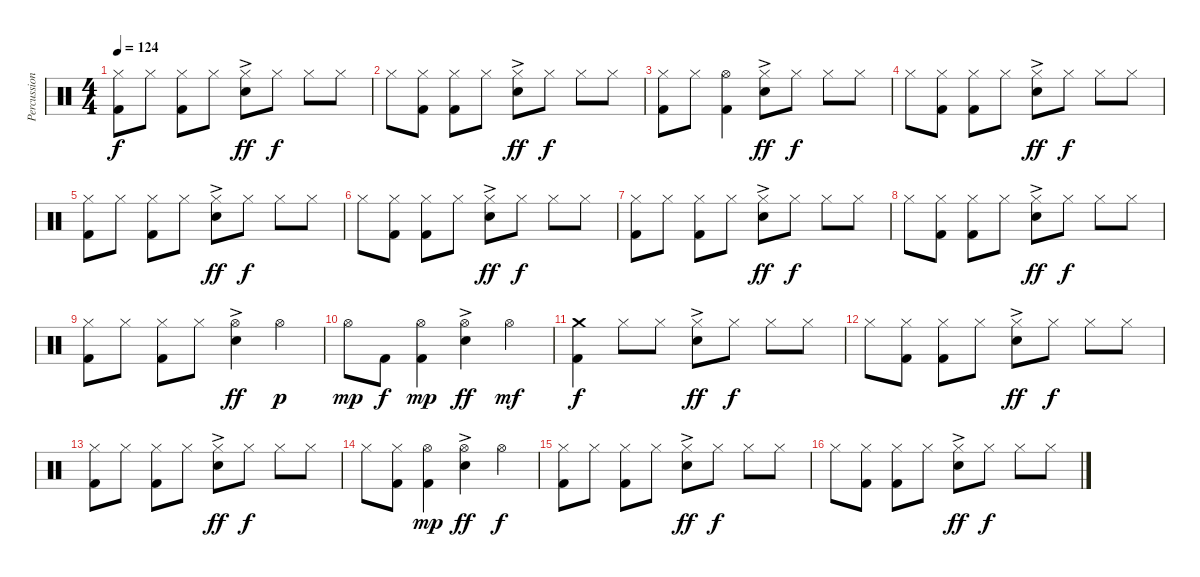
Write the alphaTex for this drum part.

\track ("Percussion" "Percussion") {instrument percussion}
\staff {score}
\articulation defaults
\ts (4 4)
\tempo 124
\clef neutral
\ks c
("Hi-Hat (closed)" "Kick (hit) 2").8{dy f} "Hi-Hat (closed)".8 ("Hi-Hat (closed)" "Kick (hit) 2").8 "Hi-Hat (closed)".8 ("Hi-Hat (closed)" "Electric Snare (hit)"{ac}).8{dy ff} "Hi-Hat (closed)".8{dy f} "Hi-Hat (closed)".8 "Hi-Hat (closed)".8 |
"Hi-Hat (closed)".8 ("Hi-Hat (closed)" "Kick (hit) 2").8 ("Hi-Hat (closed)" "Kick (hit) 2").8 "Hi-Hat (closed)".8 ("Hi-Hat (closed)" "Electric Snare (hit)"{ac}).8{dy ff} "Hi-Hat (closed)".8{dy f} "Hi-Hat (closed)".8 "Hi-Hat (closed)".8 |
("Hi-Hat (closed)" "Kick (hit) 2").8 "Hi-Hat (closed)".8 ("Hi-Hat (open)" "Kick (hit) 2").4 ("Hi-Hat (closed)" "Electric Snare (hit)"{ac}).8{dy ff} "Hi-Hat (closed)".8{dy f} "Hi-Hat (closed)".8 "Hi-Hat (closed)".8 |
"Hi-Hat (closed)".8 ("Hi-Hat (closed)" "Kick (hit) 2").8 ("Hi-Hat (closed)" "Kick (hit) 2").8 "Hi-Hat (closed)".8 ("Hi-Hat (closed)" "Electric Snare (hit)"{ac}).8{dy ff} "Hi-Hat (closed)".8{dy f} "Hi-Hat (closed)".8 "Hi-Hat (closed)".8 |
("Hi-Hat (closed)" "Kick (hit) 2").8 "Hi-Hat (closed)".8 ("Hi-Hat (closed)" "Kick (hit) 2").8 "Hi-Hat (closed)".8 ("Hi-Hat (closed)" "Electric Snare (hit)"{ac}).8{dy ff} "Hi-Hat (closed)".8{dy f} "Hi-Hat (closed)".8 "Hi-Hat (closed)".8 |
"Hi-Hat (closed)".8 ("Hi-Hat (closed)" "Kick (hit) 2").8 ("Hi-Hat (closed)" "Kick (hit) 2").8 "Hi-Hat (closed)".8 ("Hi-Hat (closed)" "Electric Snare (hit)"{ac}).8{dy ff} "Hi-Hat (closed)".8{dy f} "Hi-Hat (closed)".8 "Hi-Hat (closed)".8 |
("Hi-Hat (closed)" "Kick (hit) 2").8 "Hi-Hat (closed)".8 ("Hi-Hat (closed)" "Kick (hit) 2").8 "Hi-Hat (closed)".8 ("Hi-Hat (closed)" "Electric Snare (hit)"{ac}).8{dy ff} "Hi-Hat (closed)".8{dy f} "Hi-Hat (closed)".8 "Hi-Hat (closed)".8 |
"Hi-Hat (closed)".8 ("Hi-Hat (closed)" "Kick (hit) 2").8 ("Hi-Hat (closed)" "Kick (hit) 2").8 "Hi-Hat (closed)".8 ("Hi-Hat (closed)" "Electric Snare (hit)"{ac}).8{dy ff} "Hi-Hat (closed)".8{dy f} "Hi-Hat (closed)".8 "Hi-Hat (closed)".8 |
("Hi-Hat (closed)" "Kick (hit) 2").8 "Hi-Hat (closed)".8 ("Hi-Hat (closed)" "Kick (hit) 2").8 "Hi-Hat (closed)".8 ("Hi-Hat (open)" "Electric Snare (hit)"{ac}).4{dy ff} "Hi-Hat (open)".4{dy p} |
"Hi-Hat (open)".8{dy mp} "Kick (hit) 2".8{dy f} ("Hi-Hat (open)" "Kick (hit) 2").4{dy mp} ("Hi-Hat (open)" "Electric Snare (hit)"{ac}).4{dy ff} "Hi-Hat (open)".4{dy mf} |
("Crash medium (hit)" "Kick (hit) 2").4{dy f} "Hi-Hat (closed)".8 "Hi-Hat (closed)".8 ("Hi-Hat (closed)" "Electric Snare (hit)"{ac}).8{dy ff} "Hi-Hat (closed)".8{dy f} "Hi-Hat (closed)".8 "Hi-Hat (closed)".8 |
"Hi-Hat (closed)".8 ("Hi-Hat (closed)" "Kick (hit) 2").8 ("Hi-Hat (closed)" "Kick (hit) 2").8 "Hi-Hat (closed)".8 ("Hi-Hat (closed)" "Electric Snare (hit)"{ac}).8{dy ff} "Hi-Hat (closed)".8{dy f} "Hi-Hat (closed)".8 "Hi-Hat (closed)".8 |
("Hi-Hat (closed)" "Kick (hit) 2").8 "Hi-Hat (closed)".8 ("Hi-Hat (closed)" "Kick (hit) 2").8 "Hi-Hat (closed)".8 ("Hi-Hat (closed)" "Electric Snare (hit)"{ac}).8{dy ff} "Hi-Hat (closed)".8{dy f} "Hi-Hat (closed)".8 "Hi-Hat (closed)".8 |
"Hi-Hat (closed)".8 ("Hi-Hat (closed)" "Kick (hit) 2").8 ("Hi-Hat (open)" "Kick (hit) 2").4{dy mp} ("Hi-Hat (open)" "Electric Snare (hit)"{ac}).4{dy ff} "Hi-Hat (open)".4{dy f} |
("Hi-Hat (closed)" "Kick (hit) 2").8 "Hi-Hat (closed)".8 ("Hi-Hat (closed)" "Kick (hit) 2").8 "Hi-Hat (closed)".8 ("Hi-Hat (closed)" "Electric Snare (hit)"{ac}).8{dy ff} "Hi-Hat (closed)".8{dy f} "Hi-Hat (closed)".8 "Hi-Hat (closed)".8 |
"Hi-Hat (closed)".8 ("Hi-Hat (closed)" "Kick (hit) 2").8 ("Hi-Hat (closed)" "Kick (hit) 2").8 "Hi-Hat (closed)".8 ("Hi-Hat (closed)" "Electric Snare (hit)"{ac}).8{dy ff} "Hi-Hat (closed)".8{dy f} "Hi-Hat (closed)".8 "Hi-Hat (closed)".8
